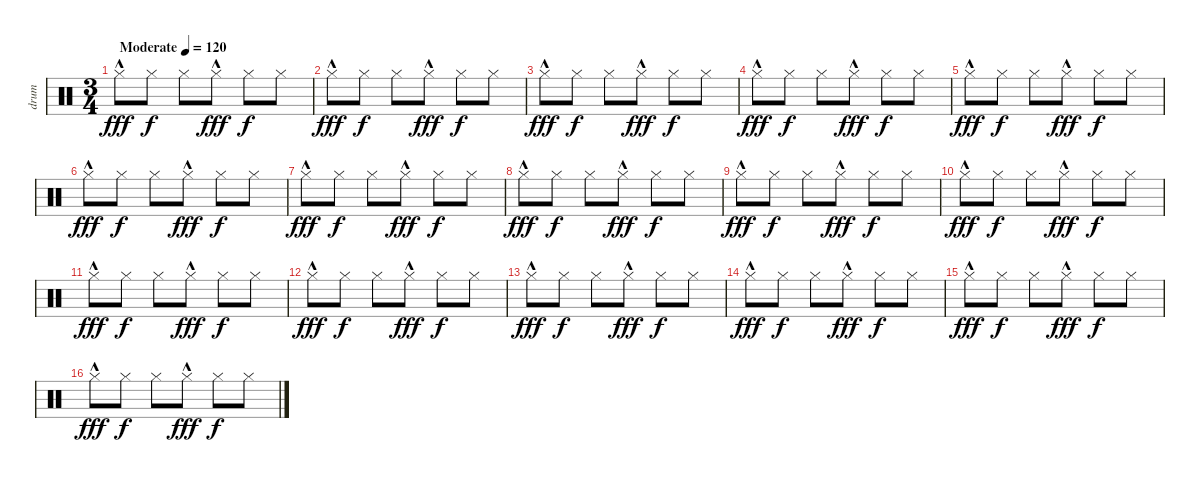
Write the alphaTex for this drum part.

\track ("drum" "drum") {instrument percussion}
\staff {score}
\articulation defaults
\ts (3 4)
\tempo (120 "Moderate")
\tempo 111
\tempo (120 "Moderate")
\clef neutral
\ks c "Hi-Hat (closed)"{hac}.8{dy fff} "Hi-Hat (closed)".8{dy f} "Hi-Hat (closed)".8 "Hi-Hat (closed)"{hac}.8{dy fff} "Hi-Hat (closed)".8{dy f} "Hi-Hat (closed)".8
|
"Hi-Hat (closed)"{hac}.8{dy fff} "Hi-Hat (closed)".8{dy f} "Hi-Hat (closed)".8 "Hi-Hat (closed)"{hac}.8{dy fff} "Hi-Hat (closed)".8{dy f} "Hi-Hat (closed)".8 |
"Hi-Hat (closed)"{hac}.8{dy fff} "Hi-Hat (closed)".8{dy f} "Hi-Hat (closed)".8 "Hi-Hat (closed)"{hac}.8{dy fff} "Hi-Hat (closed)".8{dy f} "Hi-Hat (closed)".8 |
"Hi-Hat (closed)"{hac}.8{dy fff} "Hi-Hat (closed)".8{dy f} "Hi-Hat (closed)".8 "Hi-Hat (closed)"{hac}.8{dy fff} "Hi-Hat (closed)".8{dy f} "Hi-Hat (closed)".8 |
"Hi-Hat (closed)"{hac}.8{dy fff} "Hi-Hat (closed)".8{dy f} "Hi-Hat (closed)".8 "Hi-Hat (closed)"{hac}.8{dy fff} "Hi-Hat (closed)".8{dy f} "Hi-Hat (closed)".8 |
"Hi-Hat (closed)"{hac}.8{dy fff} "Hi-Hat (closed)".8{dy f} "Hi-Hat (closed)".8 "Hi-Hat (closed)"{hac}.8{dy fff} "Hi-Hat (closed)".8{dy f} "Hi-Hat (closed)".8 |
"Hi-Hat (closed)"{hac}.8{dy fff} "Hi-Hat (closed)".8{dy f} "Hi-Hat (closed)".8 "Hi-Hat (closed)"{hac}.8{dy fff} "Hi-Hat (closed)".8{dy f} "Hi-Hat (closed)".8 |
"Hi-Hat (closed)"{hac}.8{dy fff} "Hi-Hat (closed)".8{dy f} "Hi-Hat (closed)".8 "Hi-Hat (closed)"{hac}.8{dy fff} "Hi-Hat (closed)".8{dy f} "Hi-Hat (closed)".8 |
"Hi-Hat (closed)"{hac}.8{dy fff} "Hi-Hat (closed)".8{dy f} "Hi-Hat (closed)".8 "Hi-Hat (closed)"{hac}.8{dy fff} "Hi-Hat (closed)".8{dy f} "Hi-Hat (closed)".8 |
"Hi-Hat (closed)"{hac}.8{dy fff} "Hi-Hat (closed)".8{dy f} "Hi-Hat (closed)".8 "Hi-Hat (closed)"{hac}.8{dy fff} "Hi-Hat (closed)".8{dy f} "Hi-Hat (closed)".8 |
"Hi-Hat (closed)"{hac}.8{dy fff} "Hi-Hat (closed)".8{dy f} "Hi-Hat (closed)".8 "Hi-Hat (closed)"{hac}.8{dy fff} "Hi-Hat (closed)".8{dy f} "Hi-Hat (closed)".8 |
"Hi-Hat (closed)"{hac}.8{dy fff} "Hi-Hat (closed)".8{dy f} "Hi-Hat (closed)".8 "Hi-Hat (closed)"{hac}.8{dy fff} "Hi-Hat (closed)".8{dy f} "Hi-Hat (closed)".8 |
"Hi-Hat (closed)"{hac}.8{dy fff} "Hi-Hat (closed)".8{dy f} "Hi-Hat (closed)".8 "Hi-Hat (closed)"{hac}.8{dy fff} "Hi-Hat (closed)".8{dy f} "Hi-Hat (closed)".8 |
"Hi-Hat (closed)"{hac}.8{dy fff} "Hi-Hat (closed)".8{dy f} "Hi-Hat (closed)".8 "Hi-Hat (closed)"{hac}.8{dy fff} "Hi-Hat (closed)".8{dy f} "Hi-Hat (closed)".8 |
"Hi-Hat (closed)"{hac}.8{dy fff} "Hi-Hat (closed)".8{dy f} "Hi-Hat (closed)".8 "Hi-Hat (closed)"{hac}.8{dy fff} "Hi-Hat (closed)".8{dy f} "Hi-Hat (closed)".8 |
"Hi-Hat (closed)"{hac}.8{dy fff} "Hi-Hat (closed)".8{dy f} "Hi-Hat (closed)".8 "Hi-Hat (closed)"{hac}.8{dy fff} "Hi-Hat (closed)".8{dy f} "Hi-Hat (closed)".8
